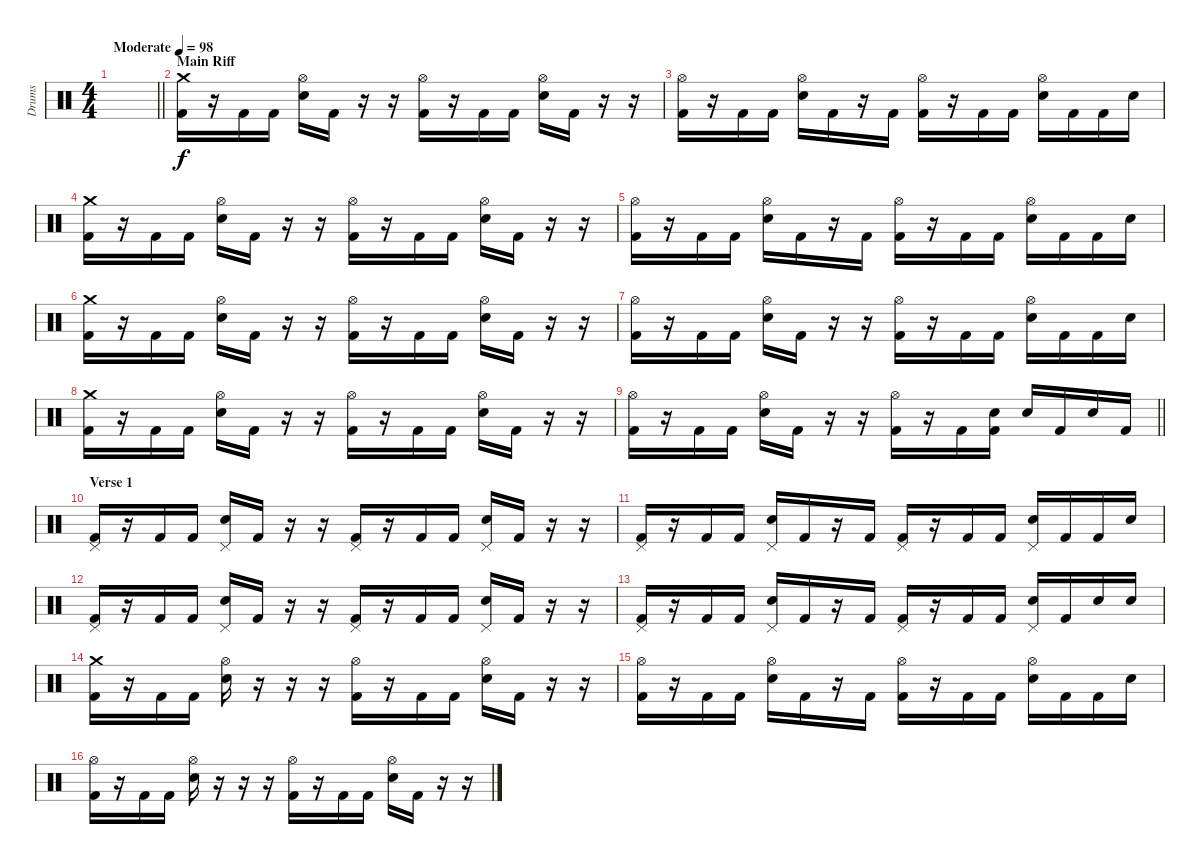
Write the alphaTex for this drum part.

\track ("Drums" "Drums") {instrument percussion}
\staff {score}
\articulation defaults
\ts (4 4)
\tempo (98 "Moderate")
\clef neutral
\barLineRight lightlight
\ks c
|
\section ("" "Main Riff")
("Crash medium (hit)" "Kick (hit) 2").16 r.16 "Kick (hit) 2".16 "Kick (hit) 2".16 ("Hi-Hat (open)" "Electric Snare (hit)").16 "Kick (hit) 2".16 r.16 r.16 ("Hi-Hat (open)" "Kick (hit) 2").16 r.16 "Kick (hit) 2".16 "Kick (hit) 2".16 ("Hi-Hat (open)" "Electric Snare (hit)").16 "Kick (hit) 2".16 r.16 r.16 |
("Hi-Hat (open)" "Kick (hit) 2").16 r.16 "Kick (hit) 2".16 "Kick (hit) 2".16 ("Hi-Hat (open)" "Electric Snare (hit)").16 "Kick (hit) 2".16 r.16 "Kick (hit) 2".16 ("Hi-Hat (open)" "Kick (hit) 2").16 r.16 "Kick (hit) 2".16 "Kick (hit) 2".16 ("Hi-Hat (open)" "Electric Snare (hit)").16 "Kick (hit) 2".16 "Kick (hit) 2".16 "Electric Snare (hit)".16 |
("Crash medium (hit)" "Kick (hit) 2").16 r.16 "Kick (hit) 2".16 "Kick (hit) 2".16 ("Hi-Hat (open)" "Electric Snare (hit)").16 "Kick (hit) 2".16 r.16 r.16 ("Hi-Hat (open)" "Kick (hit) 2").16 r.16 "Kick (hit) 2".16 "Kick (hit) 2".16 ("Hi-Hat (open)" "Electric Snare (hit)").16 "Kick (hit) 2".16 r.16 r.16 |
("Hi-Hat (open)" "Kick (hit) 2").16 r.16 "Kick (hit) 2".16 "Kick (hit) 2".16 ("Hi-Hat (open)" "Electric Snare (hit)").16 "Kick (hit) 2".16 r.16 "Kick (hit) 2".16 ("Hi-Hat (open)" "Kick (hit) 2").16 r.16 "Kick (hit) 2".16 "Kick (hit) 2".16 ("Hi-Hat (open)" "Electric Snare (hit)").16 "Kick (hit) 2".16 "Kick (hit) 2".16 "Electric Snare (hit)".16 |
("Crash medium (hit)" "Kick (hit) 2").16 r.16 "Kick (hit) 2".16 "Kick (hit) 2".16 ("Hi-Hat (open)" "Electric Snare (hit)").16 "Kick (hit) 2".16 r.16 r.16 ("Hi-Hat (open)" "Kick (hit) 2").16 r.16 "Kick (hit) 2".16 "Kick (hit) 2".16 ("Hi-Hat (open)" "Electric Snare (hit)").16 "Kick (hit) 2".16 r.16 r.16 |
("Hi-Hat (open)" "Kick (hit) 2").16 r.16 "Kick (hit) 2".16 "Kick (hit) 2".16 ("Hi-Hat (open)" "Electric Snare (hit)").16 "Kick (hit) 2".16 r.16 r.16 ("Hi-Hat (open)" "Kick (hit) 2").16 r.16 "Kick (hit) 2".16 "Kick (hit) 2".16 ("Hi-Hat (open)" "Electric Snare (hit)").16 "Kick (hit) 2".16 "Kick (hit) 2".16 "Electric Snare (hit)".16 |
("Crash medium (hit)" "Kick (hit) 2").16 r.16 "Kick (hit) 2".16 "Kick (hit) 2".16 ("Hi-Hat (open)" "Electric Snare (hit)").16 "Kick (hit) 2".16 r.16 r.16 ("Hi-Hat (open)" "Kick (hit) 2").16 r.16 "Kick (hit) 2".16 "Kick (hit) 2".16 ("Hi-Hat (open)" "Electric Snare (hit)").16 "Kick (hit) 2".16 r.16 r.16 |
\barLineRight lightlight
("Hi-Hat (open)" "Kick (hit) 2").16 r.16 "Kick (hit) 2".16 "Kick (hit) 2".16 ("Hi-Hat (open)" "Electric Snare (hit)").16 "Kick (hit) 2".16 r.16 r.16 ("Hi-Hat (open)" "Kick (hit) 2").16 r.16 "Kick (hit) 2".16 ("Electric Snare (hit)" "Kick (hit) 2").16 "Electric Snare (hit)".16 "Kick (hit) 2".16 "Electric Snare (hit)".16 "Kick (hit) 2".16 |
\section ("" "Verse 1")
("Pedal Hi-Hat (hit)" "Kick (hit) 2").16 r.16 "Kick (hit) 2".16 "Kick (hit) 2".16 ("Pedal Hi-Hat (hit)" "Electric Snare (hit)").16 "Kick (hit) 2".16 r.16 r.16 ("Pedal Hi-Hat (hit)" "Kick (hit) 2").16 r.16 "Kick (hit) 2".16 "Kick (hit) 2".16 ("Pedal Hi-Hat (hit)" "Electric Snare (hit)").16 "Kick (hit) 2".16 r.16 r.16 |
("Pedal Hi-Hat (hit)" "Kick (hit) 2").16 r.16 "Kick (hit) 2".16 "Kick (hit) 2".16 ("Pedal Hi-Hat (hit)" "Electric Snare (hit)").16 "Kick (hit) 2".16 r.16 "Kick (hit) 2".16 ("Pedal Hi-Hat (hit)" "Kick (hit) 2").16 r.16 "Kick (hit) 2".16 "Kick (hit) 2".16 ("Pedal Hi-Hat (hit)" "Electric Snare (hit)").16 "Kick (hit) 2".16 "Kick (hit) 2".16 "Electric Snare (hit)".16 |
("Pedal Hi-Hat (hit)" "Kick (hit) 2").16 r.16 "Kick (hit) 2".16 "Kick (hit) 2".16 ("Pedal Hi-Hat (hit)" "Electric Snare (hit)").16 "Kick (hit) 2".16 r.16 r.16 ("Pedal Hi-Hat (hit)" "Kick (hit) 2").16 r.16 "Kick (hit) 2".16 "Kick (hit) 2".16 ("Pedal Hi-Hat (hit)" "Electric Snare (hit)").16 "Kick (hit) 2".16 r.16 r.16 |
("Pedal Hi-Hat (hit)" "Kick (hit) 2").16 r.16 "Kick (hit) 2".16 "Kick (hit) 2".16 ("Pedal Hi-Hat (hit)" "Electric Snare (hit)").16 "Kick (hit) 2".16 r.16 "Kick (hit) 2".16 ("Pedal Hi-Hat (hit)" "Kick (hit) 2").16 r.16 "Kick (hit) 2".16 "Kick (hit) 2".16 ("Pedal Hi-Hat (hit)" "Electric Snare (hit)").16 "Kick (hit) 2".16 "Electric Snare (hit)".16 "Electric Snare (hit)".16 |
("Crash medium (hit)" "Kick (hit) 2").16 r.16 "Kick (hit) 2".16 "Kick (hit) 2".16 ("Hi-Hat (open)" "Electric Snare (hit)").16 r.16 r.16 r.16 ("Hi-Hat (open)" "Kick (hit) 2").16 r.16 "Kick (hit) 2".16 "Kick (hit) 2".16 ("Hi-Hat (open)" "Electric Snare (hit)").16 "Kick (hit) 2".16 r.16 r.16 |
("Hi-Hat (open)" "Kick (hit) 2").16 r.16 "Kick (hit) 2".16 "Kick (hit) 2".16 ("Hi-Hat (open)" "Electric Snare (hit)").16 "Kick (hit) 2".16 r.16 "Kick (hit) 2".16 ("Hi-Hat (open)" "Kick (hit) 2").16 r.16 "Kick (hit) 2".16 "Kick (hit) 2".16 ("Hi-Hat (open)" "Electric Snare (hit)").16 "Kick (hit) 2".16 "Kick (hit) 2".16 "Electric Snare (hit)".16 |
("Hi-Hat (open)" "Kick (hit) 2").16 r.16 "Kick (hit) 2".16 "Kick (hit) 2".16 ("Hi-Hat (open)" "Electric Snare (hit)").16 r.16 r.16 r.16 ("Hi-Hat (open)" "Kick (hit) 2").16 r.16 "Kick (hit) 2".16 "Kick (hit) 2".16 ("Hi-Hat (open)" "Electric Snare (hit)").16 "Kick (hit) 2".16 r.16 r.16
